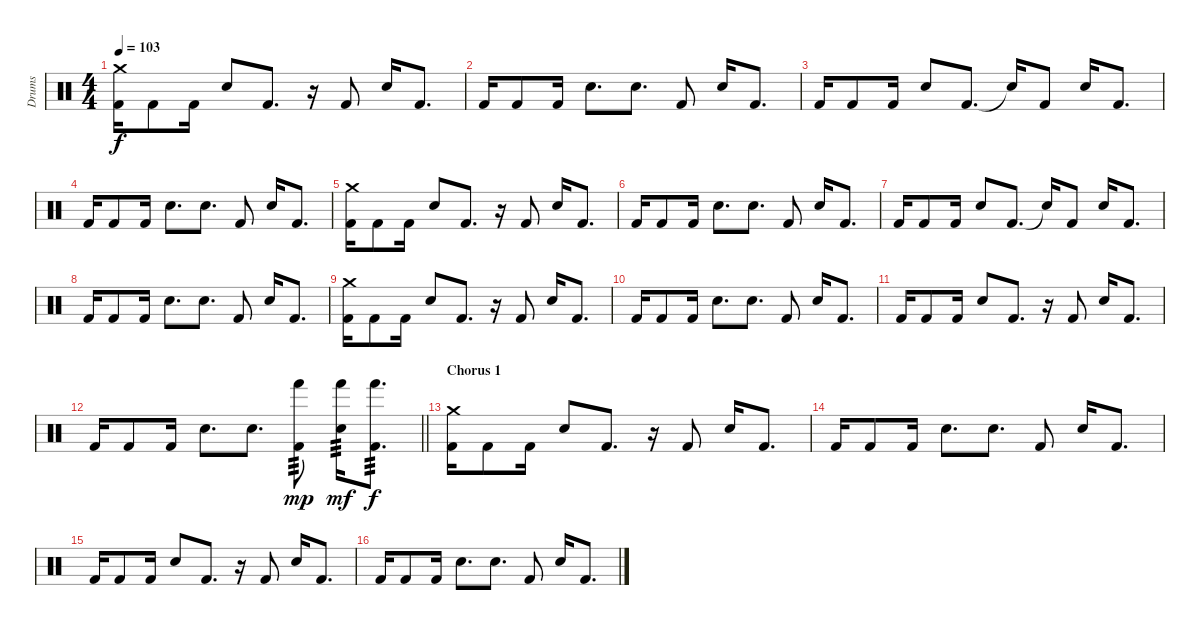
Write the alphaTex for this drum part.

\track ("Drums" "Drums") {instrument percussion}
\staff {score}
\articulation defaults
\ts (4 4)
\tempo 103
\clef neutral
\ks c
("Kick (hit) 2" "Crash medium (hit)").16{dy f} "Kick (hit) 2".8 "Kick (hit) 2".16 "Electric Snare (hit)".8 "Kick (hit) 2".8{d} r.16 "Kick (hit) 2".8 "Electric Snare (hit)".16 "Kick (hit) 2".8{d} |
"Kick (hit) 2".16 "Kick (hit) 2".8 "Kick (hit) 2".16 "Electric Snare (hit)".8{d} "Electric Snare (hit)".8{d} "Kick (hit) 2".8 "Electric Snare (hit)".16 "Kick (hit) 2".8{d} |
"Kick (hit) 2".16 "Kick (hit) 2".8 "Kick (hit) 2".16 "Electric Snare (hit)".8 "Kick (hit) 2".8{d} "Snare (hit)"{t}.16 "Kick (hit) 2".8 "Electric Snare (hit)".16 "Kick (hit) 2".8{d} |
"Kick (hit) 2".16 "Kick (hit) 2".8 "Kick (hit) 2".16 "Electric Snare (hit)".8{d} "Electric Snare (hit)".8{d} "Kick (hit) 2".8 "Electric Snare (hit)".16 "Kick (hit) 2".8{d} |
("Kick (hit) 2" "Crash medium (hit)").16 "Kick (hit) 2".8 "Kick (hit) 2".16 "Electric Snare (hit)".8 "Kick (hit) 2".8{d} r.16 "Kick (hit) 2".8 "Electric Snare (hit)".16 "Kick (hit) 2".8{d} |
"Kick (hit) 2".16 "Kick (hit) 2".8 "Kick (hit) 2".16 "Electric Snare (hit)".8{d} "Electric Snare (hit)".8{d} "Kick (hit) 2".8 "Electric Snare (hit)".16 "Kick (hit) 2".8{d} |
"Kick (hit) 2".16 "Kick (hit) 2".8 "Kick (hit) 2".16 "Electric Snare (hit)".8 "Kick (hit) 2".8{d} "Snare (hit)"{t}.16 "Kick (hit) 2".8 "Electric Snare (hit)".16 "Kick (hit) 2".8{d} |
"Kick (hit) 2".16 "Kick (hit) 2".8 "Kick (hit) 2".16 "Electric Snare (hit)".8{d} "Electric Snare (hit)".8{d} "Kick (hit) 2".8 "Electric Snare (hit)".16 "Kick (hit) 2".8{d} |
("Kick (hit) 2" "Crash medium (hit)").16 "Kick (hit) 2".8 "Kick (hit) 2".16 "Electric Snare (hit)".8 "Kick (hit) 2".8{d} r.16 "Kick (hit) 2".8 "Electric Snare (hit)".16 "Kick (hit) 2".8{d} |
"Kick (hit) 2".16 "Kick (hit) 2".8 "Kick (hit) 2".16 "Electric Snare (hit)".8{d} "Electric Snare (hit)".8{d} "Kick (hit) 2".8 "Electric Snare (hit)".16 "Kick (hit) 2".8{d} |
"Kick (hit) 2".16 "Kick (hit) 2".8 "Kick (hit) 2".16 "Electric Snare (hit)".8 "Kick (hit) 2".8{d} r.16 "Kick (hit) 2".8 "Electric Snare (hit)".16 "Kick (hit) 2".8{d} |
\barLineRight lightlight "Kick (hit) 2".16 "Kick (hit) 2".8 "Kick (hit) 2".16 "Electric Snare (hit)".8{d} "Electric Snare (hit)".8{d}
("Kick (hit) 2" "Hand (hit)").8{tp 3 dy mp} ("Electric Snare (hit)" "Hand (hit)").16{tp 3 dy mf} ("Kick (hit) 2" "Hand (hit)").8{d tp 3 dy f} |
\section ("" "Chorus 1")
("Kick (hit) 2" "Crash medium (hit)").16 "Kick (hit) 2".8 "Kick (hit) 2".16 "Electric Snare (hit)".8 "Kick (hit) 2".8{d} r.16 "Kick (hit) 2".8 "Electric Snare (hit)".16 "Kick (hit) 2".8{d} |
"Kick (hit) 2".16 "Kick (hit) 2".8 "Kick (hit) 2".16 "Electric Snare (hit)".8{d} "Electric Snare (hit)".8{d} "Kick (hit) 2".8 "Electric Snare (hit)".16 "Kick (hit) 2".8{d} |
"Kick (hit) 2".16 "Kick (hit) 2".8 "Kick (hit) 2".16 "Electric Snare (hit)".8 "Kick (hit) 2".8{d} r.16 "Kick (hit) 2".8 "Electric Snare (hit)".16 "Kick (hit) 2".8{d} |
"Kick (hit) 2".16 "Kick (hit) 2".8 "Kick (hit) 2".16 "Electric Snare (hit)".8{d} "Electric Snare (hit)".8{d} "Kick (hit) 2".8 "Electric Snare (hit)".16 "Kick (hit) 2".8{d}
